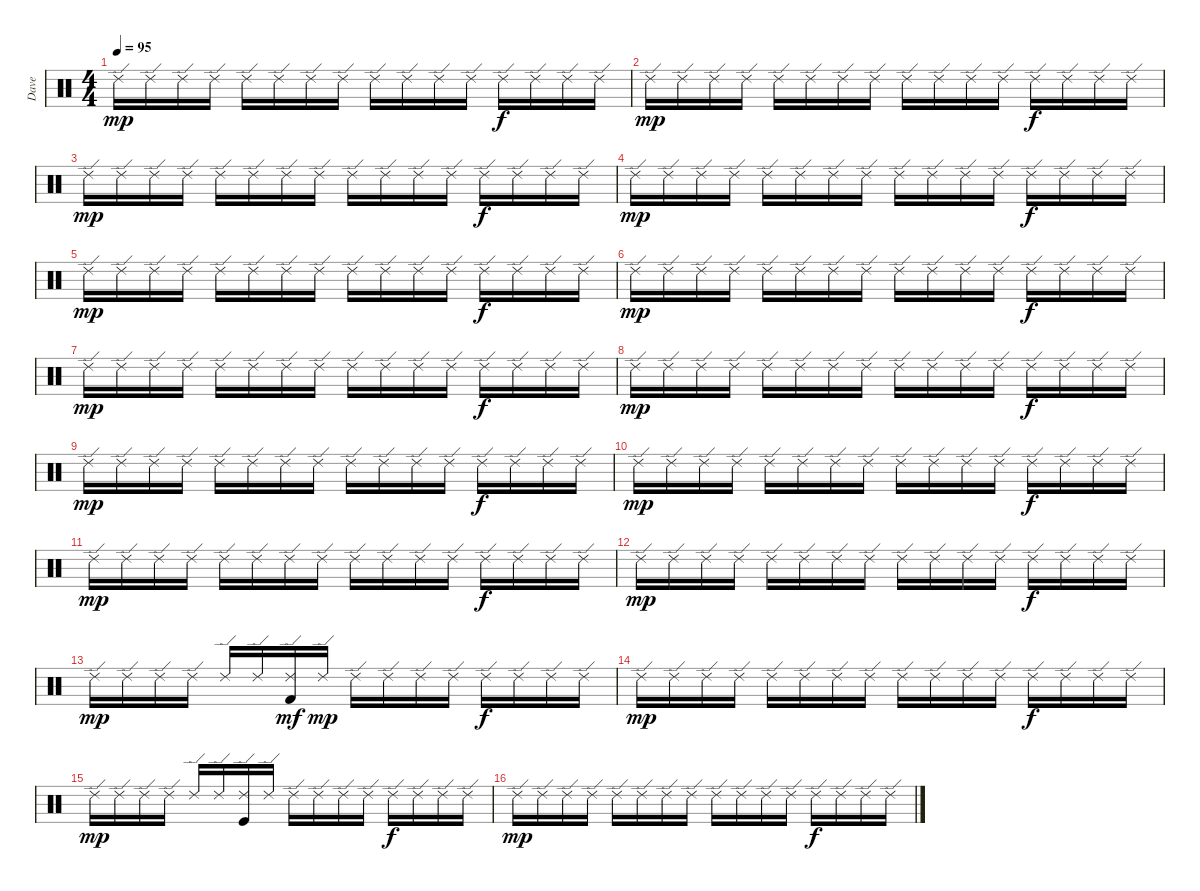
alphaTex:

\track ("Dave" "Dave") {instrument percussion}
\staff {score}
\articulation defaults
\ts (4 4)
\tempo 95
\clef neutral
\ks c "Ride (edge) 2".16{dy mp} "Ride (edge) 2".16 "Ride (edge) 2".16 "Ride (edge) 2".16 "Ride (edge) 2".16 "Ride (edge) 2".16 "Ride (edge) 2".16 "Ride (edge) 2".16 "Ride (edge) 2".16 "Ride (edge) 2".16 "Ride (edge) 2".16 "Ride (edge) 2".16 "Ride (edge) 2".16{dy f} "Ride (edge) 2".16 "Ride (edge) 2".16 "Ride (edge) 2".16
|
"Ride (edge) 2".16{dy mp} "Ride (edge) 2".16 "Ride (edge) 2".16 "Ride (edge) 2".16 "Ride (edge) 2".16 "Ride (edge) 2".16 "Ride (edge) 2".16 "Ride (edge) 2".16 "Ride (edge) 2".16 "Ride (edge) 2".16 "Ride (edge) 2".16 "Ride (edge) 2".16 "Ride (edge) 2".16{dy f} "Ride (edge) 2".16 "Ride (edge) 2".16 "Ride (edge) 2".16 |
"Ride (edge) 2".16{dy mp} "Ride (edge) 2".16 "Ride (edge) 2".16 "Ride (edge) 2".16 "Ride (edge) 2".16 "Ride (edge) 2".16 "Ride (edge) 2".16 "Ride (edge) 2".16 "Ride (edge) 2".16 "Ride (edge) 2".16 "Ride (edge) 2".16 "Ride (edge) 2".16 "Ride (edge) 2".16{dy f} "Ride (edge) 2".16 "Ride (edge) 2".16 "Ride (edge) 2".16 |
"Ride (edge) 2".16{dy mp} "Ride (edge) 2".16 "Ride (edge) 2".16 "Ride (edge) 2".16 "Ride (edge) 2".16 "Ride (edge) 2".16 "Ride (edge) 2".16 "Ride (edge) 2".16 "Ride (edge) 2".16 "Ride (edge) 2".16 "Ride (edge) 2".16 "Ride (edge) 2".16 "Ride (edge) 2".16{dy f} "Ride (edge) 2".16 "Ride (edge) 2".16 "Ride (edge) 2".16 |
"Ride (edge) 2".16{dy mp} "Ride (edge) 2".16 "Ride (edge) 2".16 "Ride (edge) 2".16 "Ride (edge) 2".16 "Ride (edge) 2".16 "Ride (edge) 2".16 "Ride (edge) 2".16 "Ride (edge) 2".16 "Ride (edge) 2".16 "Ride (edge) 2".16 "Ride (edge) 2".16 "Ride (edge) 2".16{dy f} "Ride (edge) 2".16 "Ride (edge) 2".16 "Ride (edge) 2".16 |
"Ride (edge) 2".16{dy mp} "Ride (edge) 2".16 "Ride (edge) 2".16 "Ride (edge) 2".16 "Ride (edge) 2".16 "Ride (edge) 2".16 "Ride (edge) 2".16 "Ride (edge) 2".16 "Ride (edge) 2".16 "Ride (edge) 2".16 "Ride (edge) 2".16 "Ride (edge) 2".16 "Ride (edge) 2".16{dy f} "Ride (edge) 2".16 "Ride (edge) 2".16 "Ride (edge) 2".16 |
"Ride (edge) 2".16{dy mp} "Ride (edge) 2".16 "Ride (edge) 2".16 "Ride (edge) 2".16 "Ride (edge) 2".16 "Ride (edge) 2".16 "Ride (edge) 2".16 "Ride (edge) 2".16 "Ride (edge) 2".16 "Ride (edge) 2".16 "Ride (edge) 2".16 "Ride (edge) 2".16 "Ride (edge) 2".16{dy f} "Ride (edge) 2".16 "Ride (edge) 2".16 "Ride (edge) 2".16 |
"Ride (edge) 2".16{dy mp} "Ride (edge) 2".16 "Ride (edge) 2".16 "Ride (edge) 2".16 "Ride (edge) 2".16 "Ride (edge) 2".16 "Ride (edge) 2".16 "Ride (edge) 2".16 "Ride (edge) 2".16 "Ride (edge) 2".16 "Ride (edge) 2".16 "Ride (edge) 2".16 "Ride (edge) 2".16{dy f} "Ride (edge) 2".16 "Ride (edge) 2".16 "Ride (edge) 2".16 |
"Ride (edge) 2".16{dy mp} "Ride (edge) 2".16 "Ride (edge) 2".16 "Ride (edge) 2".16 "Ride (edge) 2".16 "Ride (edge) 2".16 "Ride (edge) 2".16 "Ride (edge) 2".16 "Ride (edge) 2".16 "Ride (edge) 2".16 "Ride (edge) 2".16 "Ride (edge) 2".16 "Ride (edge) 2".16{dy f} "Ride (edge) 2".16 "Ride (edge) 2".16 "Ride (edge) 2".16 |
"Ride (edge) 2".16{dy mp} "Ride (edge) 2".16 "Ride (edge) 2".16 "Ride (edge) 2".16 "Ride (edge) 2".16 "Ride (edge) 2".16 "Ride (edge) 2".16 "Ride (edge) 2".16 "Ride (edge) 2".16 "Ride (edge) 2".16 "Ride (edge) 2".16 "Ride (edge) 2".16 "Ride (edge) 2".16{dy f} "Ride (edge) 2".16 "Ride (edge) 2".16 "Ride (edge) 2".16 |
"Ride (edge) 2".16{dy mp} "Ride (edge) 2".16 "Ride (edge) 2".16 "Ride (edge) 2".16 "Ride (edge) 2".16 "Ride (edge) 2".16 "Ride (edge) 2".16 "Ride (edge) 2".16 "Ride (edge) 2".16 "Ride (edge) 2".16 "Ride (edge) 2".16 "Ride (edge) 2".16 "Ride (edge) 2".16{dy f} "Ride (edge) 2".16 "Ride (edge) 2".16 "Ride (edge) 2".16 |
"Ride (edge) 2".16{dy mp} "Ride (edge) 2".16 "Ride (edge) 2".16 "Ride (edge) 2".16 "Ride (edge) 2".16 "Ride (edge) 2".16 "Ride (edge) 2".16 "Ride (edge) 2".16 "Ride (edge) 2".16 "Ride (edge) 2".16 "Ride (edge) 2".16 "Ride (edge) 2".16 "Ride (edge) 2".16{dy f} "Ride (edge) 2".16 "Ride (edge) 2".16 "Ride (edge) 2".16 |
"Ride (edge) 2".16{dy mp} "Ride (edge) 2".16 "Ride (edge) 2".16 "Ride (edge) 2".16 "Ride (edge) 2".16 "Ride (edge) 2".16 ("Ride (edge) 2" "Kick (hit) 2").16{dy mf} "Ride (edge) 2".16{dy mp} "Ride (edge) 2".16 "Ride (edge) 2".16 "Ride (edge) 2".16 "Ride (edge) 2".16 "Ride (edge) 2".16{dy f} "Ride (edge) 2".16 "Ride (edge) 2".16 "Ride (edge) 2".16 |
"Ride (edge) 2".16{dy mp} "Ride (edge) 2".16 "Ride (edge) 2".16 "Ride (edge) 2".16 "Ride (edge) 2".16 "Ride (edge) 2".16 "Ride (edge) 2".16 "Ride (edge) 2".16 "Ride (edge) 2".16 "Ride (edge) 2".16 "Ride (edge) 2".16 "Ride (edge) 2".16 "Ride (edge) 2".16{dy f} "Ride (edge) 2".16 "Ride (edge) 2".16 "Ride (edge) 2".16 |
"Ride (edge) 2".16{dy mp} "Ride (edge) 2".16 "Ride (edge) 2".16 "Ride (edge) 2".16 "Ride (edge) 2".16 "Ride (edge) 2".16 ("Ride (edge) 2" "Kick (hit)").16 "Ride (edge) 2".16 "Ride (edge) 2".16 "Ride (edge) 2".16 "Ride (edge) 2".16 "Ride (edge) 2".16 "Ride (edge) 2".16{dy f} "Ride (edge) 2".16 "Ride (edge) 2".16 "Ride (edge) 2".16 |
"Ride (edge) 2".16{dy mp} "Ride (edge) 2".16 "Ride (edge) 2".16 "Ride (edge) 2".16 "Ride (edge) 2".16 "Ride (edge) 2".16 "Ride (edge) 2".16 "Ride (edge) 2".16 "Ride (edge) 2".16 "Ride (edge) 2".16 "Ride (edge) 2".16 "Ride (edge) 2".16 "Ride (edge) 2".16{dy f} "Ride (edge) 2".16 "Ride (edge) 2".16 "Ride (edge) 2".16
